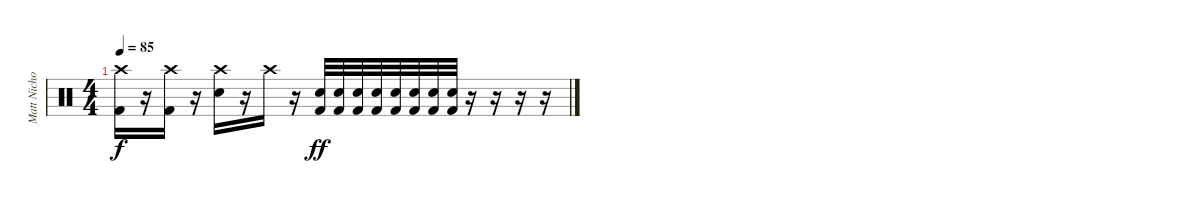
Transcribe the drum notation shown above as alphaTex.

\track ("Matt Nichols" "Matt Nicho") {instrument percussion}
\staff {score}
\articulation defaults
\ts (4 4)
\tempo 85
\clef neutral
\ks c
("Crash high (hit)" "Kick (hit) 2").16{dy f} r.16 ("Crash high (hit)" "Kick (hit) 2").16 r.16 ("Crash high (hit)" "Electric Snare (hit)").16 r.16 "Crash high (hit)".16 r.16 ("Electric Snare (hit)" "Kick (hit) 2").32{dy ff} ("Electric Snare (hit)" "Kick (hit) 2").32 ("Electric Snare (hit)" "Kick (hit) 2").32 ("Electric Snare (hit)" "Kick (hit) 2").32 ("Electric Snare (hit)" "Kick (hit) 2").32 ("Electric Snare (hit)" "Kick (hit) 2").32 ("Electric Snare (hit)" "Kick (hit) 2").32 ("Electric Snare (hit)" "Kick (hit) 2").32 r.16 r.16 r.16 r.16
